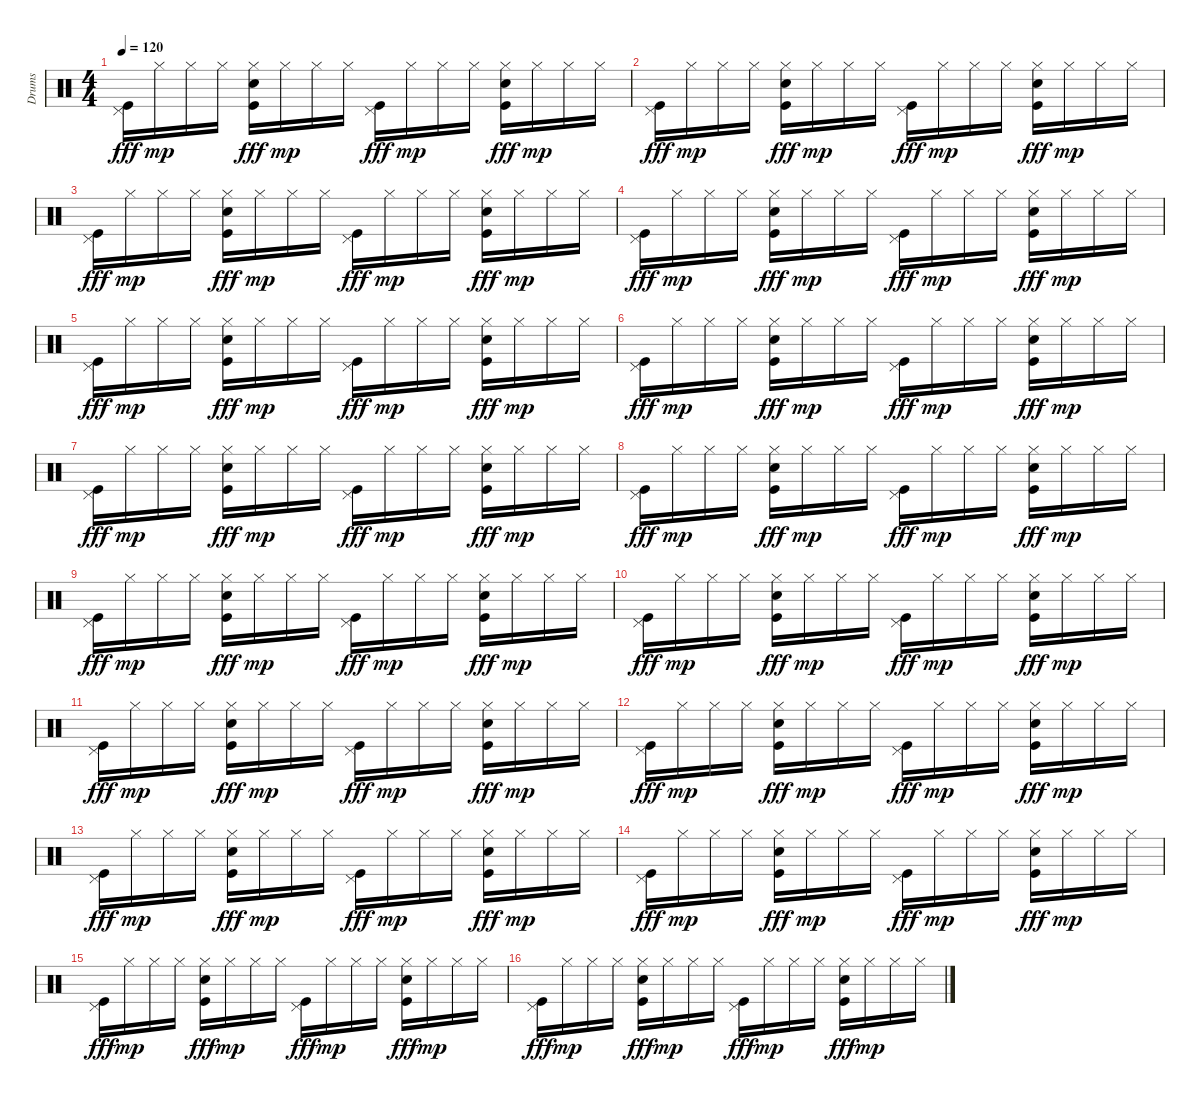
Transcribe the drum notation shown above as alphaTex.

\track ("Drums" "Drums") {instrument percussion}
\staff {score}
\articulation defaults
\ts (4 4)
\tempo 120
\clef neutral
\ks c
("Pedal Hi-Hat (hit)" "Kick (hit)").16{dy fff} "Hi-Hat (closed)".16{dy mp} "Hi-Hat (closed)".16 "Hi-Hat (closed)".16 ("Hi-Hat (closed)" "Snare (hit) 2" "Kick (hit)").16{dy fff} "Hi-Hat (closed)".16{dy mp} "Hi-Hat (closed)".16 "Hi-Hat (closed)".16 ("Pedal Hi-Hat (hit)" "Kick (hit)").16{dy fff} "Hi-Hat (closed)".16{dy mp} "Hi-Hat (closed)".16 "Hi-Hat (closed)".16 ("Hi-Hat (closed)" "Snare (hit) 2" "Kick (hit)").16{dy fff} "Hi-Hat (closed)".16{dy mp} "Hi-Hat (closed)".16 "Hi-Hat (closed)".16 |
("Pedal Hi-Hat (hit)" "Kick (hit)").16{dy fff} "Hi-Hat (closed)".16{dy mp} "Hi-Hat (closed)".16 "Hi-Hat (closed)".16 ("Hi-Hat (closed)" "Snare (hit) 2" "Kick (hit)").16{dy fff} "Hi-Hat (closed)".16{dy mp} "Hi-Hat (closed)".16 "Hi-Hat (closed)".16 ("Pedal Hi-Hat (hit)" "Kick (hit)").16{dy fff} "Hi-Hat (closed)".16{dy mp} "Hi-Hat (closed)".16 "Hi-Hat (closed)".16 ("Hi-Hat (closed)" "Snare (hit) 2" "Kick (hit)").16{dy fff} "Hi-Hat (closed)".16{dy mp} "Hi-Hat (closed)".16 "Hi-Hat (closed)".16 |
("Pedal Hi-Hat (hit)" "Kick (hit)").16{dy fff} "Hi-Hat (closed)".16{dy mp} "Hi-Hat (closed)".16 "Hi-Hat (closed)".16 ("Hi-Hat (closed)" "Snare (hit) 2" "Kick (hit)").16{dy fff} "Hi-Hat (closed)".16{dy mp} "Hi-Hat (closed)".16 "Hi-Hat (closed)".16 ("Pedal Hi-Hat (hit)" "Kick (hit)").16{dy fff} "Hi-Hat (closed)".16{dy mp} "Hi-Hat (closed)".16 "Hi-Hat (closed)".16 ("Hi-Hat (closed)" "Snare (hit) 2" "Kick (hit)").16{dy fff} "Hi-Hat (closed)".16{dy mp} "Hi-Hat (closed)".16 "Hi-Hat (closed)".16 |
("Pedal Hi-Hat (hit)" "Kick (hit)").16{dy fff} "Hi-Hat (closed)".16{dy mp} "Hi-Hat (closed)".16 "Hi-Hat (closed)".16 ("Hi-Hat (closed)" "Snare (hit) 2" "Kick (hit)").16{dy fff} "Hi-Hat (closed)".16{dy mp} "Hi-Hat (closed)".16 "Hi-Hat (closed)".16 ("Pedal Hi-Hat (hit)" "Kick (hit)").16{dy fff} "Hi-Hat (closed)".16{dy mp} "Hi-Hat (closed)".16 "Hi-Hat (closed)".16 ("Hi-Hat (closed)" "Snare (hit) 2" "Kick (hit)").16{dy fff} "Hi-Hat (closed)".16{dy mp} "Hi-Hat (closed)".16 "Hi-Hat (closed)".16 |
("Pedal Hi-Hat (hit)" "Kick (hit)").16{dy fff} "Hi-Hat (closed)".16{dy mp} "Hi-Hat (closed)".16 "Hi-Hat (closed)".16 ("Hi-Hat (closed)" "Snare (hit) 2" "Kick (hit)").16{dy fff} "Hi-Hat (closed)".16{dy mp} "Hi-Hat (closed)".16 "Hi-Hat (closed)".16 ("Pedal Hi-Hat (hit)" "Kick (hit)").16{dy fff} "Hi-Hat (closed)".16{dy mp} "Hi-Hat (closed)".16 "Hi-Hat (closed)".16 ("Hi-Hat (closed)" "Snare (hit) 2" "Kick (hit)").16{dy fff} "Hi-Hat (closed)".16{dy mp} "Hi-Hat (closed)".16 "Hi-Hat (closed)".16 |
("Pedal Hi-Hat (hit)" "Kick (hit)").16{dy fff} "Hi-Hat (closed)".16{dy mp} "Hi-Hat (closed)".16 "Hi-Hat (closed)".16 ("Hi-Hat (closed)" "Snare (hit) 2" "Kick (hit)").16{dy fff} "Hi-Hat (closed)".16{dy mp} "Hi-Hat (closed)".16 "Hi-Hat (closed)".16 ("Pedal Hi-Hat (hit)" "Kick (hit)").16{dy fff} "Hi-Hat (closed)".16{dy mp} "Hi-Hat (closed)".16 "Hi-Hat (closed)".16 ("Hi-Hat (closed)" "Snare (hit) 2" "Kick (hit)").16{dy fff} "Hi-Hat (closed)".16{dy mp} "Hi-Hat (closed)".16 "Hi-Hat (closed)".16 |
("Pedal Hi-Hat (hit)" "Kick (hit)").16{dy fff} "Hi-Hat (closed)".16{dy mp} "Hi-Hat (closed)".16 "Hi-Hat (closed)".16 ("Hi-Hat (closed)" "Snare (hit) 2" "Kick (hit)").16{dy fff} "Hi-Hat (closed)".16{dy mp} "Hi-Hat (closed)".16 "Hi-Hat (closed)".16 ("Pedal Hi-Hat (hit)" "Kick (hit)").16{dy fff} "Hi-Hat (closed)".16{dy mp} "Hi-Hat (closed)".16 "Hi-Hat (closed)".16 ("Hi-Hat (closed)" "Snare (hit) 2" "Kick (hit)").16{dy fff} "Hi-Hat (closed)".16{dy mp} "Hi-Hat (closed)".16 "Hi-Hat (closed)".16 |
("Pedal Hi-Hat (hit)" "Kick (hit)").16{dy fff} "Hi-Hat (closed)".16{dy mp} "Hi-Hat (closed)".16 "Hi-Hat (closed)".16 ("Hi-Hat (closed)" "Snare (hit) 2" "Kick (hit)").16{dy fff} "Hi-Hat (closed)".16{dy mp} "Hi-Hat (closed)".16 "Hi-Hat (closed)".16 ("Pedal Hi-Hat (hit)" "Kick (hit)").16{dy fff} "Hi-Hat (closed)".16{dy mp} "Hi-Hat (closed)".16 "Hi-Hat (closed)".16 ("Hi-Hat (closed)" "Snare (hit) 2" "Kick (hit)").16{dy fff} "Hi-Hat (closed)".16{dy mp} "Hi-Hat (closed)".16 "Hi-Hat (closed)".16 |
("Pedal Hi-Hat (hit)" "Kick (hit)").16{dy fff} "Hi-Hat (closed)".16{dy mp} "Hi-Hat (closed)".16 "Hi-Hat (closed)".16 ("Hi-Hat (closed)" "Snare (hit) 2" "Kick (hit)").16{dy fff} "Hi-Hat (closed)".16{dy mp} "Hi-Hat (closed)".16 "Hi-Hat (closed)".16 ("Pedal Hi-Hat (hit)" "Kick (hit)").16{dy fff} "Hi-Hat (closed)".16{dy mp} "Hi-Hat (closed)".16 "Hi-Hat (closed)".16 ("Hi-Hat (closed)" "Snare (hit) 2" "Kick (hit)").16{dy fff} "Hi-Hat (closed)".16{dy mp} "Hi-Hat (closed)".16 "Hi-Hat (closed)".16 |
("Pedal Hi-Hat (hit)" "Kick (hit)").16{dy fff} "Hi-Hat (closed)".16{dy mp} "Hi-Hat (closed)".16 "Hi-Hat (closed)".16 ("Hi-Hat (closed)" "Snare (hit) 2" "Kick (hit)").16{dy fff} "Hi-Hat (closed)".16{dy mp} "Hi-Hat (closed)".16 "Hi-Hat (closed)".16 ("Pedal Hi-Hat (hit)" "Kick (hit)").16{dy fff} "Hi-Hat (closed)".16{dy mp} "Hi-Hat (closed)".16 "Hi-Hat (closed)".16 ("Hi-Hat (closed)" "Snare (hit) 2" "Kick (hit)").16{dy fff} "Hi-Hat (closed)".16{dy mp} "Hi-Hat (closed)".16 "Hi-Hat (closed)".16 |
("Pedal Hi-Hat (hit)" "Kick (hit)").16{dy fff} "Hi-Hat (closed)".16{dy mp} "Hi-Hat (closed)".16 "Hi-Hat (closed)".16 ("Hi-Hat (closed)" "Snare (hit) 2" "Kick (hit)").16{dy fff} "Hi-Hat (closed)".16{dy mp} "Hi-Hat (closed)".16 "Hi-Hat (closed)".16 ("Pedal Hi-Hat (hit)" "Kick (hit)").16{dy fff} "Hi-Hat (closed)".16{dy mp} "Hi-Hat (closed)".16 "Hi-Hat (closed)".16 ("Hi-Hat (closed)" "Snare (hit) 2" "Kick (hit)").16{dy fff} "Hi-Hat (closed)".16{dy mp} "Hi-Hat (closed)".16 "Hi-Hat (closed)".16 |
("Pedal Hi-Hat (hit)" "Kick (hit)").16{dy fff} "Hi-Hat (closed)".16{dy mp} "Hi-Hat (closed)".16 "Hi-Hat (closed)".16 ("Hi-Hat (closed)" "Snare (hit) 2" "Kick (hit)").16{dy fff} "Hi-Hat (closed)".16{dy mp} "Hi-Hat (closed)".16 "Hi-Hat (closed)".16 ("Pedal Hi-Hat (hit)" "Kick (hit)").16{dy fff} "Hi-Hat (closed)".16{dy mp} "Hi-Hat (closed)".16 "Hi-Hat (closed)".16 ("Hi-Hat (closed)" "Snare (hit) 2" "Kick (hit)").16{dy fff} "Hi-Hat (closed)".16{dy mp} "Hi-Hat (closed)".16 "Hi-Hat (closed)".16 |
("Pedal Hi-Hat (hit)" "Kick (hit)").16{dy fff} "Hi-Hat (closed)".16{dy mp} "Hi-Hat (closed)".16 "Hi-Hat (closed)".16 ("Hi-Hat (closed)" "Snare (hit) 2" "Kick (hit)").16{dy fff} "Hi-Hat (closed)".16{dy mp} "Hi-Hat (closed)".16 "Hi-Hat (closed)".16 ("Pedal Hi-Hat (hit)" "Kick (hit)").16{dy fff} "Hi-Hat (closed)".16{dy mp} "Hi-Hat (closed)".16 "Hi-Hat (closed)".16 ("Hi-Hat (closed)" "Snare (hit) 2" "Kick (hit)").16{dy fff} "Hi-Hat (closed)".16{dy mp} "Hi-Hat (closed)".16 "Hi-Hat (closed)".16 |
("Pedal Hi-Hat (hit)" "Kick (hit)").16{dy fff} "Hi-Hat (closed)".16{dy mp} "Hi-Hat (closed)".16 "Hi-Hat (closed)".16 ("Hi-Hat (closed)" "Snare (hit) 2" "Kick (hit)").16{dy fff} "Hi-Hat (closed)".16{dy mp} "Hi-Hat (closed)".16 "Hi-Hat (closed)".16 ("Pedal Hi-Hat (hit)" "Kick (hit)").16{dy fff} "Hi-Hat (closed)".16{dy mp} "Hi-Hat (closed)".16 "Hi-Hat (closed)".16 ("Hi-Hat (closed)" "Snare (hit) 2" "Kick (hit)").16{dy fff} "Hi-Hat (closed)".16{dy mp} "Hi-Hat (closed)".16 "Hi-Hat (closed)".16 |
("Pedal Hi-Hat (hit)" "Kick (hit)").16{dy fff} "Hi-Hat (closed)".16{dy mp} "Hi-Hat (closed)".16 "Hi-Hat (closed)".16 ("Hi-Hat (closed)" "Snare (hit) 2" "Kick (hit)").16{dy fff} "Hi-Hat (closed)".16{dy mp} "Hi-Hat (closed)".16 "Hi-Hat (closed)".16 ("Pedal Hi-Hat (hit)" "Kick (hit)").16{dy fff} "Hi-Hat (closed)".16{dy mp} "Hi-Hat (closed)".16 "Hi-Hat (closed)".16 ("Hi-Hat (closed)" "Snare (hit) 2" "Kick (hit)").16{dy fff} "Hi-Hat (closed)".16{dy mp} "Hi-Hat (closed)".16 "Hi-Hat (closed)".16 |
("Pedal Hi-Hat (hit)" "Kick (hit)").16{dy fff} "Hi-Hat (closed)".16{dy mp} "Hi-Hat (closed)".16 "Hi-Hat (closed)".16 ("Hi-Hat (closed)" "Snare (hit) 2" "Kick (hit)").16{dy fff} "Hi-Hat (closed)".16{dy mp} "Hi-Hat (closed)".16 "Hi-Hat (closed)".16 ("Pedal Hi-Hat (hit)" "Kick (hit)").16{dy fff} "Hi-Hat (closed)".16{dy mp} "Hi-Hat (closed)".16 "Hi-Hat (closed)".16 ("Hi-Hat (closed)" "Snare (hit) 2" "Kick (hit)").16{dy fff} "Hi-Hat (closed)".16{dy mp} "Hi-Hat (closed)".16 "Hi-Hat (closed)".16
